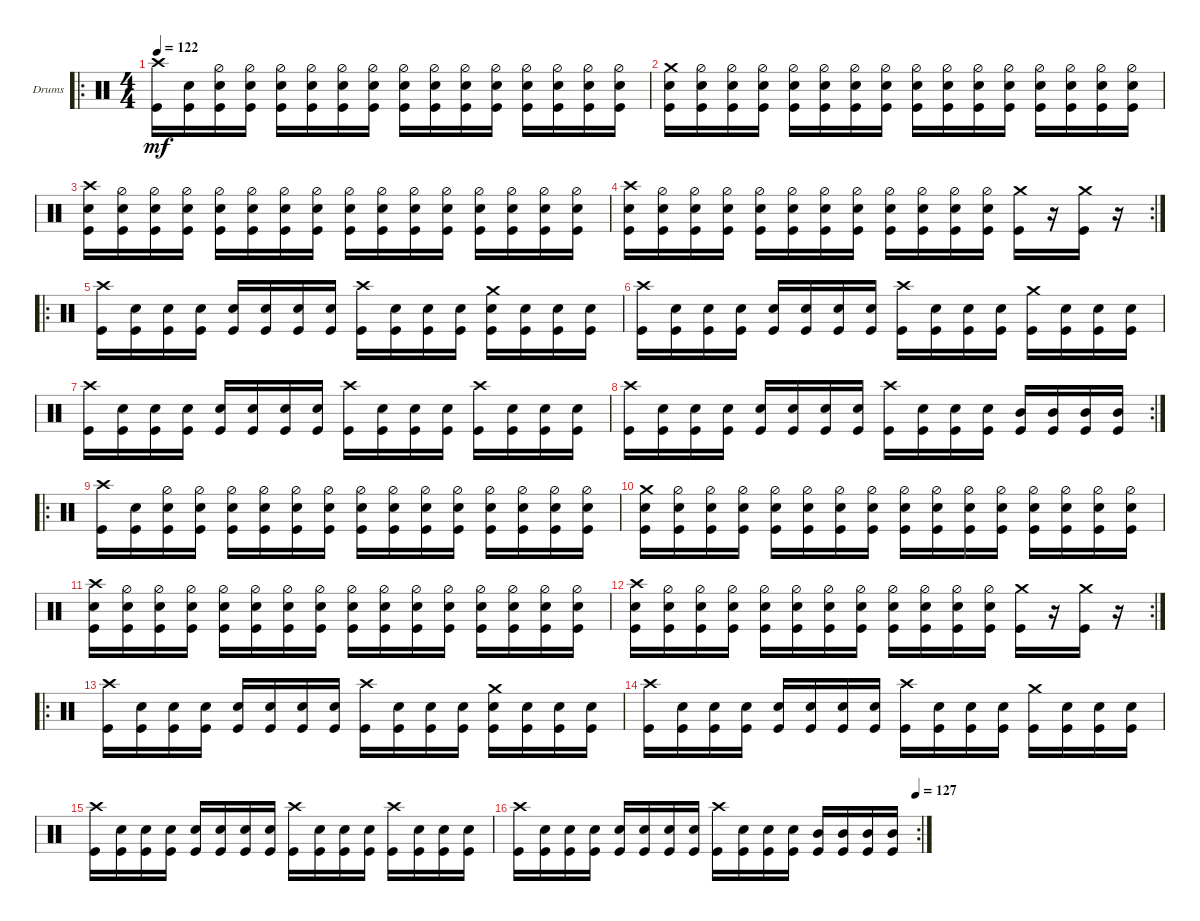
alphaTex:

\defaultSystemsLayout 4
\bracketExtendMode groupsimilarinstruments
\firstSystemTrackNameOrientation horizontal
\otherSystemsTrackNameOrientation horizontal
\track ("Incubus" "Drums") {instrument percussion}
\staff {score}
\articulation defaults
\ro
\ts (4 4)
\tempo 122
\clef neutral
\scale
0.5
\ks c
("Crash high (hit)" "Kick (hit)").16{dy mf} ("Kick (hit)" "Snare (hit) 2").16 ("Kick (hit)" "Snare (hit) 2" "Hi-Hat (half)").16 ("Kick (hit)" "Snare (hit) 2" "Hi-Hat (half)").16 ("Kick (hit)" "Snare (hit) 2" "Hi-Hat (half)").16 ("Kick (hit)" "Snare (hit) 2" "Hi-Hat (half)").16 ("Kick (hit)" "Snare (hit) 2" "Hi-Hat (half)").16 ("Kick (hit)" "Snare (hit) 2" "Hi-Hat (half)").16 ("Kick (hit)" "Snare (hit) 2" "Hi-Hat (half)").16 ("Kick (hit)" "Snare (hit) 2" "Hi-Hat (half)").16 ("Kick (hit)" "Snare (hit) 2" "Hi-Hat (half)").16 ("Kick (hit)" "Snare (hit) 2" "Hi-Hat (half)").16 ("Kick (hit)" "Snare (hit) 2" "Hi-Hat (half)").16 ("Kick (hit)" "Snare (hit) 2" "Hi-Hat (half)").16 ("Kick (hit)" "Snare (hit) 2" "Hi-Hat (half)").16 ("Kick (hit)" "Snare (hit) 2" "Hi-Hat (half)").16 |
\scale
0.25 ("Kick (hit)" "Snare (hit) 2" "Crash medium (hit)").16 ("Kick (hit)" "Snare (hit) 2" "Hi-Hat (half)").16 ("Kick (hit)" "Snare (hit) 2" "Hi-Hat (half)").16 ("Kick (hit)" "Snare (hit) 2" "Hi-Hat (half)").16 ("Kick (hit)" "Snare (hit) 2" "Hi-Hat (half)").16 ("Kick (hit)" "Snare (hit) 2" "Hi-Hat (half)").16 ("Kick (hit)" "Snare (hit) 2" "Hi-Hat (half)").16 ("Kick (hit)" "Snare (hit) 2" "Hi-Hat (half)").16 ("Kick (hit)" "Snare (hit) 2" "Hi-Hat (half)").16 ("Kick (hit)" "Snare (hit) 2" "Hi-Hat (half)").16 ("Kick (hit)" "Snare (hit) 2" "Hi-Hat (half)").16 ("Kick (hit)" "Snare (hit) 2" "Hi-Hat (half)").16 ("Kick (hit)" "Snare (hit) 2" "Hi-Hat (half)").16 ("Kick (hit)" "Snare (hit) 2" "Hi-Hat (half)").16 ("Kick (hit)" "Snare (hit) 2" "Hi-Hat (half)").16 ("Kick (hit)" "Snare (hit) 2" "Hi-Hat (half)").16 |
\scale
0.25 ("Kick (hit)" "Snare (hit) 2" "Crash high (hit)").16 ("Kick (hit)" "Snare (hit) 2" "Hi-Hat (half)").16 ("Kick (hit)" "Snare (hit) 2" "Hi-Hat (half)").16 ("Kick (hit)" "Snare (hit) 2" "Hi-Hat (half)").16 ("Kick (hit)" "Snare (hit) 2" "Hi-Hat (half)").16 ("Kick (hit)" "Snare (hit) 2" "Hi-Hat (half)").16 ("Kick (hit)" "Snare (hit) 2" "Hi-Hat (half)").16 ("Kick (hit)" "Snare (hit) 2" "Hi-Hat (half)").16 ("Kick (hit)" "Snare (hit) 2" "Hi-Hat (half)").16 ("Kick (hit)" "Snare (hit) 2" "Hi-Hat (half)").16 ("Kick (hit)" "Snare (hit) 2" "Hi-Hat (half)").16 ("Kick (hit)" "Snare (hit) 2" "Hi-Hat (half)").16 ("Kick (hit)" "Snare (hit) 2" "Hi-Hat (half)").16 ("Kick (hit)" "Snare (hit) 2" "Hi-Hat (half)").16 ("Kick (hit)" "Snare (hit) 2" "Hi-Hat (half)").16 ("Kick (hit)" "Snare (hit) 2" "Hi-Hat (half)").16 |
\rc 2
\scale
0.333333 ("Kick (hit)" "Snare (hit) 2" "Crash high (hit)").16 ("Kick (hit)" "Snare (hit) 2" "Hi-Hat (half)").16 ("Kick (hit)" "Snare (hit) 2" "Hi-Hat (half)").16 ("Kick (hit)" "Snare (hit) 2" "Hi-Hat (half)").16 ("Kick (hit)" "Snare (hit) 2" "Hi-Hat (half)").16 ("Kick (hit)" "Snare (hit) 2" "Hi-Hat (half)").16 ("Kick (hit)" "Snare (hit) 2" "Hi-Hat (half)").16 ("Kick (hit)" "Snare (hit) 2" "Hi-Hat (half)").16 ("Kick (hit)" "Snare (hit) 2" "Hi-Hat (half)").16 ("Kick (hit)" "Snare (hit) 2" "Hi-Hat (half)").16 ("Kick (hit)" "Snare (hit) 2" "Hi-Hat (half)").16 ("Kick (hit)" "Snare (hit) 2" "Hi-Hat (half)").16 ("Kick (hit)" "Crash medium (hit)").16 r.16 ("Kick (hit)" "Crash medium (hit)").16 r.16 |
\ro
\scale
0.365079 ("Crash high (hit)" "Kick (hit)").16 ("Kick (hit)" "Snare (hit) 2").16 ("Kick (hit)" "Snare (hit) 2").16 ("Kick (hit)" "Snare (hit) 2").16 ("Kick (hit)" "Snare (hit) 2").16 ("Kick (hit)" "Snare (hit) 2").16 ("Kick (hit)" "Snare (hit) 2").16 ("Kick (hit)" "Snare (hit) 2").16 ("Crash high (hit)" "Kick (hit)").16 ("Kick (hit)" "Snare (hit) 2").16 ("Kick (hit)" "Snare (hit) 2").16 ("Kick (hit)" "Snare (hit) 2").16 ("Kick (hit)" "Crash medium (hit)" "Snare (hit) 2").16 ("Kick (hit)" "Snare (hit) 2").16 ("Kick (hit)" "Snare (hit) 2").16 ("Kick (hit)" "Snare (hit) 2").16 |
\scale
0.301587 ("Crash high (hit)" "Kick (hit)").16 ("Kick (hit)" "Snare (hit) 2").16 ("Kick (hit)" "Snare (hit) 2").16 ("Kick (hit)" "Snare (hit) 2").16 ("Kick (hit)" "Snare (hit) 2").16 ("Kick (hit)" "Snare (hit) 2").16 ("Kick (hit)" "Snare (hit) 2").16 ("Kick (hit)" "Snare (hit) 2").16 ("Crash high (hit)" "Kick (hit)").16 ("Kick (hit)" "Snare (hit) 2").16 ("Kick (hit)" "Snare (hit) 2").16 ("Kick (hit)" "Snare (hit) 2").16 ("Kick (hit)" "Crash medium (hit)").16 ("Kick (hit)" "Snare (hit) 2").16 ("Kick (hit)" "Snare (hit) 2").16 ("Kick (hit)" "Snare (hit) 2").16 |
\scale
0.301587 ("Crash high (hit)" "Kick (hit)").16 ("Kick (hit)" "Snare (hit) 2").16 ("Kick (hit)" "Snare (hit) 2").16 ("Kick (hit)" "Snare (hit) 2").16 ("Kick (hit)" "Snare (hit) 2").16 ("Kick (hit)" "Snare (hit) 2").16 ("Kick (hit)" "Snare (hit) 2").16 ("Kick (hit)" "Snare (hit) 2").16 ("Crash high (hit)" "Kick (hit)").16 ("Kick (hit)" "Snare (hit) 2").16 ("Kick (hit)" "Snare (hit) 2").16 ("Kick (hit)" "Snare (hit) 2").16 ("Kick (hit)" "Crash high (hit)").16 ("Kick (hit)" "Snare (hit) 2").16 ("Kick (hit)" "Snare (hit) 2").16 ("Kick (hit)" "Snare (hit) 2").16 |
\rc 2
\scale
0.333333 ("Crash high (hit)" "Kick (hit)").16 ("Kick (hit)" "Snare (hit) 2").16 ("Kick (hit)" "Snare (hit) 2").16 ("Kick (hit)" "Snare (hit) 2").16 ("Kick (hit)" "Snare (hit) 2").16 ("Kick (hit)" "Snare (hit) 2").16 ("Kick (hit)" "Snare (hit) 2").16 ("Kick (hit)" "Snare (hit) 2").16 ("Crash high (hit)" "Kick (hit)").16 ("Kick (hit)" "Snare (hit) 2").16 ("Kick (hit)" "Snare (hit) 2").16 ("Kick (hit)" "Snare (hit) 2").16 ("Kick (hit)" "Mid Tom (hit)").16 ("Kick (hit)" "Mid Tom (hit)").16 ("Kick (hit)" "Mid Tom (hit)").16 ("Kick (hit)" "Mid Tom (hit)").16 |
\ro
\scale
0.365079 ("Crash high (hit)" "Kick (hit)").16 ("Kick (hit)" "Snare (hit) 2").16 ("Kick (hit)" "Snare (hit) 2" "Hi-Hat (half)").16 ("Kick (hit)" "Snare (hit) 2" "Hi-Hat (half)").16 ("Kick (hit)" "Snare (hit) 2" "Hi-Hat (half)").16 ("Kick (hit)" "Snare (hit) 2" "Hi-Hat (half)").16 ("Kick (hit)" "Snare (hit) 2" "Hi-Hat (half)").16 ("Kick (hit)" "Snare (hit) 2" "Hi-Hat (half)").16 ("Kick (hit)" "Snare (hit) 2" "Hi-Hat (half)").16 ("Kick (hit)" "Snare (hit) 2" "Hi-Hat (half)").16 ("Kick (hit)" "Snare (hit) 2" "Hi-Hat (half)").16 ("Kick (hit)" "Snare (hit) 2" "Hi-Hat (half)").16 ("Kick (hit)" "Snare (hit) 2" "Hi-Hat (half)").16 ("Kick (hit)" "Snare (hit) 2" "Hi-Hat (half)").16 ("Kick (hit)" "Snare (hit) 2" "Hi-Hat (half)").16 ("Kick (hit)" "Snare (hit) 2" "Hi-Hat (half)").16 |
\scale
0.322034 ("Kick (hit)" "Snare (hit) 2" "Crash medium (hit)").16 ("Kick (hit)" "Snare (hit) 2" "Hi-Hat (half)").16 ("Kick (hit)" "Snare (hit) 2" "Hi-Hat (half)").16 ("Kick (hit)" "Snare (hit) 2" "Hi-Hat (half)").16 ("Kick (hit)" "Snare (hit) 2" "Hi-Hat (half)").16 ("Kick (hit)" "Snare (hit) 2" "Hi-Hat (half)").16 ("Kick (hit)" "Snare (hit) 2" "Hi-Hat (half)").16 ("Kick (hit)" "Snare (hit) 2" "Hi-Hat (half)").16 ("Kick (hit)" "Snare (hit) 2" "Hi-Hat (half)").16 ("Kick (hit)" "Snare (hit) 2" "Hi-Hat (half)").16 ("Kick (hit)" "Snare (hit) 2" "Hi-Hat (half)").16 ("Kick (hit)" "Snare (hit) 2" "Hi-Hat (half)").16 ("Kick (hit)" "Snare (hit) 2" "Hi-Hat (half)").16 ("Kick (hit)" "Snare (hit) 2" "Hi-Hat (half)").16 ("Kick (hit)" "Snare (hit) 2" "Hi-Hat (half)").16 ("Kick (hit)" "Snare (hit) 2" "Hi-Hat (half)").16 |
\scale
0.322034 ("Kick (hit)" "Snare (hit) 2" "Crash high (hit)").16 ("Kick (hit)" "Snare (hit) 2" "Hi-Hat (half)").16 ("Kick (hit)" "Snare (hit) 2" "Hi-Hat (half)").16 ("Kick (hit)" "Snare (hit) 2" "Hi-Hat (half)").16 ("Kick (hit)" "Snare (hit) 2" "Hi-Hat (half)").16 ("Kick (hit)" "Snare (hit) 2" "Hi-Hat (half)").16 ("Kick (hit)" "Snare (hit) 2" "Hi-Hat (half)").16 ("Kick (hit)" "Snare (hit) 2" "Hi-Hat (half)").16 ("Kick (hit)" "Snare (hit) 2" "Hi-Hat (half)").16 ("Kick (hit)" "Snare (hit) 2" "Hi-Hat (half)").16 ("Kick (hit)" "Snare (hit) 2" "Hi-Hat (half)").16 ("Kick (hit)" "Snare (hit) 2" "Hi-Hat (half)").16 ("Kick (hit)" "Snare (hit) 2" "Hi-Hat (half)").16 ("Kick (hit)" "Snare (hit) 2" "Hi-Hat (half)").16 ("Kick (hit)" "Snare (hit) 2" "Hi-Hat (half)").16 ("Kick (hit)" "Snare (hit) 2" "Hi-Hat (half)").16 |
\rc 2
\scale
0.355932 ("Kick (hit)" "Snare (hit) 2" "Crash high (hit)").16 ("Kick (hit)" "Snare (hit) 2" "Hi-Hat (half)").16 ("Kick (hit)" "Snare (hit) 2" "Hi-Hat (half)").16 ("Kick (hit)" "Snare (hit) 2" "Hi-Hat (half)").16 ("Kick (hit)" "Snare (hit) 2" "Hi-Hat (half)").16 ("Kick (hit)" "Snare (hit) 2" "Hi-Hat (half)").16 ("Kick (hit)" "Snare (hit) 2" "Hi-Hat (half)").16 ("Kick (hit)" "Snare (hit) 2" "Hi-Hat (half)").16 ("Kick (hit)" "Snare (hit) 2" "Hi-Hat (half)").16 ("Kick (hit)" "Snare (hit) 2" "Hi-Hat (half)").16 ("Kick (hit)" "Snare (hit) 2" "Hi-Hat (half)").16 ("Kick (hit)" "Snare (hit) 2" "Hi-Hat (half)").16 ("Kick (hit)" "Crash medium (hit)").16 r.16 ("Kick (hit)" "Crash medium (hit)").16 r.16 |
\ro
\scale
0.377049 ("Crash high (hit)" "Kick (hit)").16 ("Kick (hit)" "Snare (hit) 2").16 ("Kick (hit)" "Snare (hit) 2").16 ("Kick (hit)" "Snare (hit) 2").16 ("Kick (hit)" "Snare (hit) 2").16 ("Kick (hit)" "Snare (hit) 2").16 ("Kick (hit)" "Snare (hit) 2").16 ("Kick (hit)" "Snare (hit) 2").16 ("Crash high (hit)" "Kick (hit)").16 ("Kick (hit)" "Snare (hit) 2").16 ("Kick (hit)" "Snare (hit) 2").16 ("Kick (hit)" "Snare (hit) 2").16 ("Kick (hit)" "Crash medium (hit)" "Snare (hit) 2").16 ("Kick (hit)" "Snare (hit) 2").16 ("Kick (hit)" "Snare (hit) 2").16 ("Kick (hit)" "Snare (hit) 2").16 |
\scale
0.311475 ("Crash high (hit)" "Kick (hit)").16 ("Kick (hit)" "Snare (hit) 2").16 ("Kick (hit)" "Snare (hit) 2").16 ("Kick (hit)" "Snare (hit) 2").16 ("Kick (hit)" "Snare (hit) 2").16 ("Kick (hit)" "Snare (hit) 2").16 ("Kick (hit)" "Snare (hit) 2").16 ("Kick (hit)" "Snare (hit) 2").16 ("Crash high (hit)" "Kick (hit)").16 ("Kick (hit)" "Snare (hit) 2").16 ("Kick (hit)" "Snare (hit) 2").16 ("Kick (hit)" "Snare (hit) 2").16 ("Kick (hit)" "Crash medium (hit)").16 ("Kick (hit)" "Snare (hit) 2").16 ("Kick (hit)" "Snare (hit) 2").16 ("Kick (hit)" "Snare (hit) 2").16 |
\scale
0.311475 ("Crash high (hit)" "Kick (hit)").16 ("Kick (hit)" "Snare (hit) 2").16 ("Kick (hit)" "Snare (hit) 2").16 ("Kick (hit)" "Snare (hit) 2").16 ("Kick (hit)" "Snare (hit) 2").16 ("Kick (hit)" "Snare (hit) 2").16 ("Kick (hit)" "Snare (hit) 2").16 ("Kick (hit)" "Snare (hit) 2").16 ("Crash high (hit)" "Kick (hit)").16 ("Kick (hit)" "Snare (hit) 2").16 ("Kick (hit)" "Snare (hit) 2").16 ("Kick (hit)" "Snare (hit) 2").16 ("Kick (hit)" "Crash high (hit)").16 ("Kick (hit)" "Snare (hit) 2").16 ("Kick (hit)" "Snare (hit) 2").16 ("Kick (hit)" "Snare (hit) 2").16 |
\rc 2
\tempo (127 1)
\scale
0.355932 ("Crash high (hit)" "Kick (hit)").16 ("Kick (hit)" "Snare (hit) 2").16 ("Kick (hit)" "Snare (hit) 2").16 ("Kick (hit)" "Snare (hit) 2").16 ("Kick (hit)" "Snare (hit) 2").16 ("Kick (hit)" "Snare (hit) 2").16 ("Kick (hit)" "Snare (hit) 2").16 ("Kick (hit)" "Snare (hit) 2").16 ("Crash high (hit)" "Kick (hit)").16 ("Kick (hit)" "Snare (hit) 2").16 ("Kick (hit)" "Snare (hit) 2").16 ("Kick (hit)" "Snare (hit) 2").16 ("Kick (hit)" "Mid Tom (hit)").16 ("Kick (hit)" "Mid Tom (hit)").16 ("Kick (hit)" "Mid Tom (hit)").16 ("Kick (hit)" "Mid Tom (hit)").16
